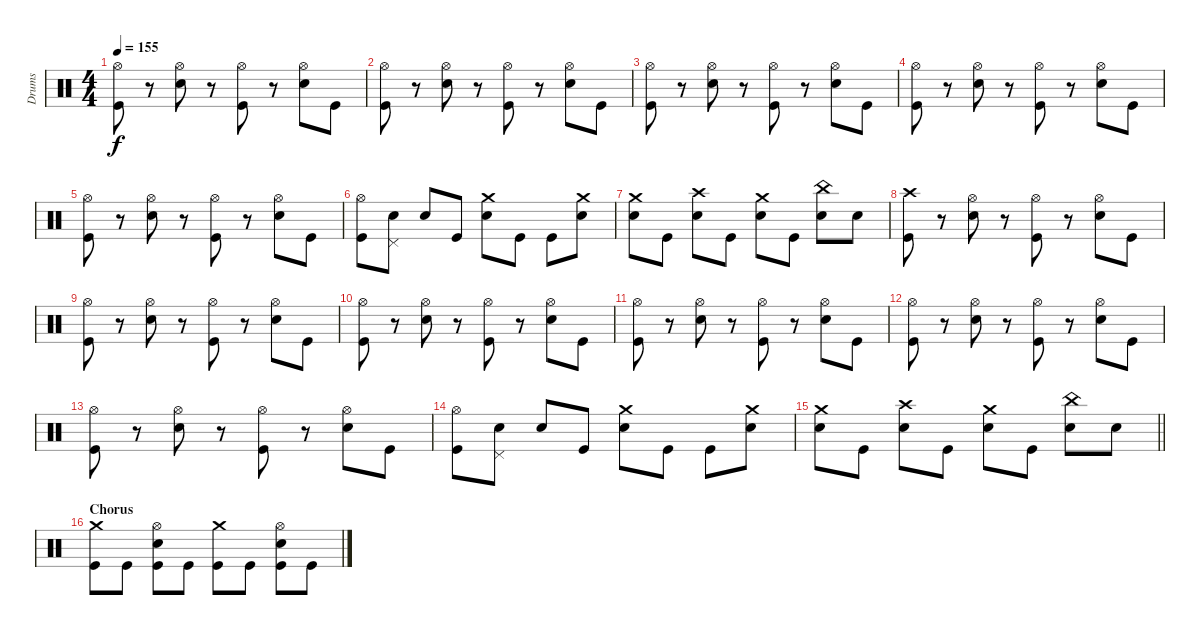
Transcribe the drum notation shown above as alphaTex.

\track ("Drums" "Drums") {instrument percussion}
\staff {score}
\articulation defaults
\ts (4 4)
\tempo 155
\clef neutral
\ks c
("Hi-Hat (open)" "Kick (hit)").8{dy f} r.8 ("Hi-Hat (open)" "Electric Snare (hit)").8 r.8 ("Hi-Hat (open)" "Kick (hit)").8 r.8 ("Hi-Hat (open)" "Electric Snare (hit)").8 "Kick (hit)".8 |
("Hi-Hat (open)" "Kick (hit)").8 r.8 ("Hi-Hat (open)" "Electric Snare (hit)").8 r.8 ("Hi-Hat (open)" "Kick (hit)").8 r.8 ("Hi-Hat (open)" "Electric Snare (hit)").8 "Kick (hit)".8 |
("Hi-Hat (open)" "Kick (hit)").8 r.8 ("Hi-Hat (open)" "Electric Snare (hit)").8 r.8 ("Hi-Hat (open)" "Kick (hit)").8 r.8 ("Hi-Hat (open)" "Electric Snare (hit)").8 "Kick (hit)".8 |
("Hi-Hat (open)" "Kick (hit)").8 r.8 ("Hi-Hat (open)" "Electric Snare (hit)").8 r.8 ("Hi-Hat (open)" "Kick (hit)").8 r.8 ("Hi-Hat (open)" "Electric Snare (hit)").8 "Kick (hit)".8 |
("Hi-Hat (open)" "Kick (hit)").8 r.8 ("Hi-Hat (open)" "Electric Snare (hit)").8 r.8 ("Hi-Hat (open)" "Kick (hit)").8 r.8 ("Hi-Hat (open)" "Electric Snare (hit)").8 "Kick (hit)".8 |
("Hi-Hat (open)" "Kick (hit)").8 ("Pedal Hi-Hat (hit)" "Electric Snare (hit)").8 "Electric Snare (hit)".8 "Kick (hit)".8 ("Crash medium (hit)" "Electric Snare (hit)").8 "Kick (hit)".8 "Kick (hit)".8 ("Crash medium (hit)" "Electric Snare (hit)").8 |
("Crash medium (hit)" "Electric Snare (hit)").8 "Kick (hit)".8 ("Crash high (hit)" "Electric Snare (hit)").8 "Kick (hit)".8 ("Crash medium (hit)" "Electric Snare (hit)").8 "Kick (hit)".8 ("China (hit)" "Electric Snare (hit)").8 "Electric Snare (hit)".8 |
("Crash high (hit)" "Kick (hit)").8 r.8 ("Hi-Hat (open)" "Electric Snare (hit)").8 r.8 ("Hi-Hat (open)" "Kick (hit)").8 r.8 ("Hi-Hat (open)" "Electric Snare (hit)").8 "Kick (hit)".8 |
("Hi-Hat (open)" "Kick (hit)").8 r.8 ("Hi-Hat (open)" "Electric Snare (hit)").8 r.8 ("Hi-Hat (open)" "Kick (hit)").8 r.8 ("Hi-Hat (open)" "Electric Snare (hit)").8 "Kick (hit)".8 |
("Hi-Hat (open)" "Kick (hit)").8 r.8 ("Hi-Hat (open)" "Electric Snare (hit)").8 r.8 ("Hi-Hat (open)" "Kick (hit)").8 r.8 ("Hi-Hat (open)" "Electric Snare (hit)").8 "Kick (hit)".8 |
("Hi-Hat (open)" "Kick (hit)").8 r.8 ("Hi-Hat (open)" "Electric Snare (hit)").8 r.8 ("Hi-Hat (open)" "Kick (hit)").8 r.8 ("Hi-Hat (open)" "Electric Snare (hit)").8 "Kick (hit)".8 |
("Hi-Hat (open)" "Kick (hit)").8 r.8 ("Hi-Hat (open)" "Electric Snare (hit)").8 r.8 ("Hi-Hat (open)" "Kick (hit)").8 r.8 ("Hi-Hat (open)" "Electric Snare (hit)").8 "Kick (hit)".8 |
("Hi-Hat (open)" "Kick (hit)").8 r.8 ("Hi-Hat (open)" "Electric Snare (hit)").8 r.8 ("Hi-Hat (open)" "Kick (hit)").8 r.8 ("Hi-Hat (open)" "Electric Snare (hit)").8 "Kick (hit)".8 |
("Hi-Hat (open)" "Kick (hit)").8 ("Pedal Hi-Hat (hit)" "Electric Snare (hit)").8 "Electric Snare (hit)".8 "Kick (hit)".8 ("Crash medium (hit)" "Electric Snare (hit)").8 "Kick (hit)".8 "Kick (hit)".8 ("Crash medium (hit)" "Electric Snare (hit)").8 |
\barLineRight lightlight
("Crash medium (hit)" "Electric Snare (hit)").8 "Kick (hit)".8 ("Crash high (hit)" "Electric Snare (hit)").8 "Kick (hit)".8 ("Crash medium (hit)" "Electric Snare (hit)").8 "Kick (hit)".8 ("China (hit)" "Electric Snare (hit)").8 "Electric Snare (hit)".8 |
\section ("" "Chorus")
("Crash medium (hit)" "Kick (hit)").8 "Kick (hit)".8 ("Hi-Hat (open)" "Electric Snare (hit)" "Kick (hit)").8 "Kick (hit)".8 ("Crash medium (hit)" "Kick (hit)").8 "Kick (hit)".8 ("Hi-Hat (open)" "Electric Snare (hit)" "Kick (hit)").8 "Kick (hit)".8
